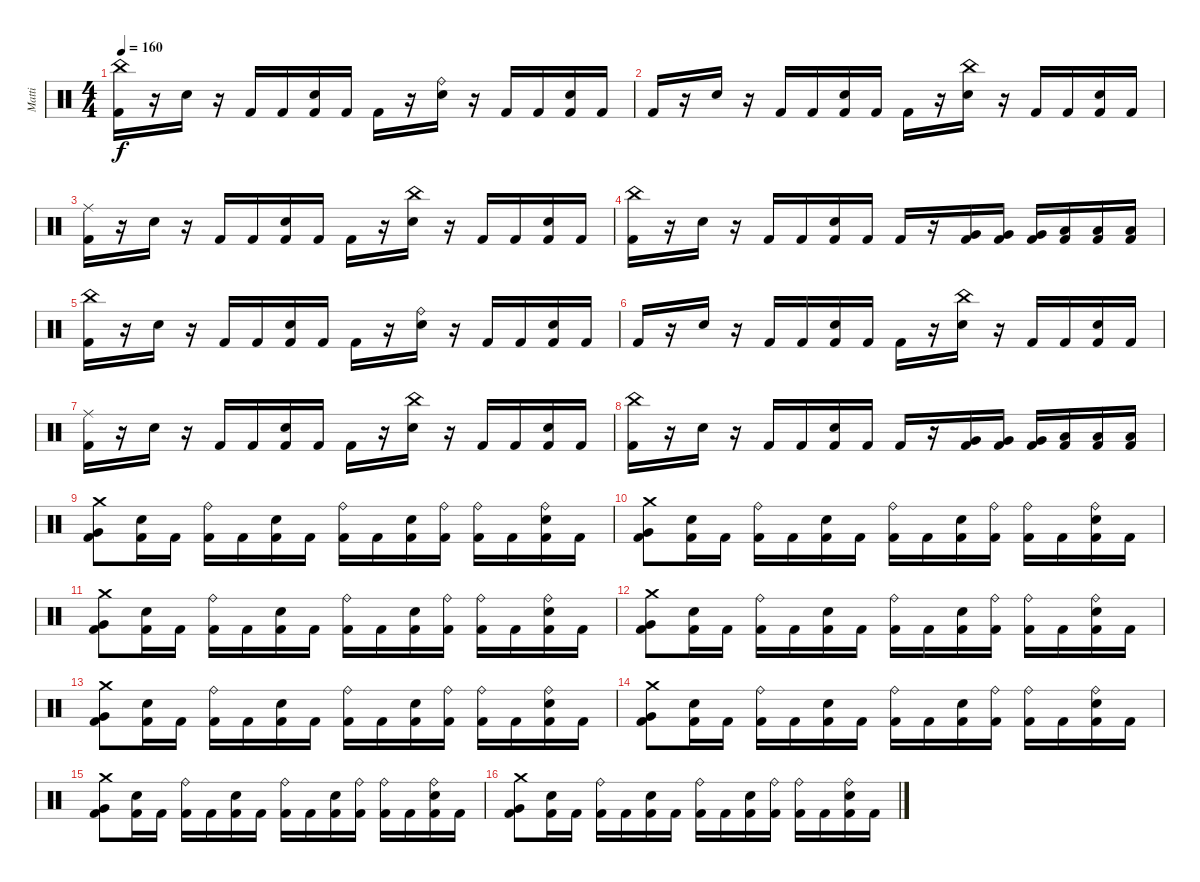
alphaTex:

\track ("Matti" "Matti") {instrument percussion}
\staff {score}
\articulation defaults
\ts (4 4)
\tempo 160
\clef neutral
\ks c
("China (hit)" "Kick (hit) 2").16{dy f} r.16 "Electric Snare (hit)".16 r.16 "Kick (hit) 2".16 "Kick (hit) 2".16 ("Electric Snare (hit)" "Kick (hit) 2").16 "Kick (hit) 2".16 "Kick (hit) 2".16 r.16 ("Ride (bell)" "Electric Snare (hit)").16 r.16 "Kick (hit) 2".16 "Kick (hit) 2".16 ("Electric Snare (hit)" "Kick (hit) 2").16 "Kick (hit) 2".16 |
"Kick (hit) 2".16 r.16 "Electric Snare (hit)".16 r.16 "Kick (hit) 2".16 "Kick (hit) 2".16 ("Electric Snare (hit)" "Kick (hit) 2").16 "Kick (hit) 2".16 "Kick (hit) 2".16 r.16 ("China (hit)" "Electric Snare (hit)").16 r.16 "Kick (hit) 2".16 "Kick (hit) 2".16 ("Electric Snare (hit)" "Kick (hit) 2").16 "Kick (hit) 2".16 |
("Ride (middle)" "Kick (hit) 2").16 r.16 "Electric Snare (hit)".16 r.16 "Kick (hit) 2".16 "Kick (hit) 2".16 ("Electric Snare (hit)" "Kick (hit) 2").16 "Kick (hit) 2".16 "Kick (hit) 2".16 r.16 ("China (hit)" "Electric Snare (hit)").16 r.16 "Kick (hit) 2".16 "Kick (hit) 2".16 ("Electric Snare (hit)" "Kick (hit) 2").16 "Kick (hit) 2".16 |
("China (hit)" "Kick (hit) 2").16 r.16 "Electric Snare (hit)".16 r.16 "Kick (hit) 2".16 "Kick (hit) 2".16 ("Electric Snare (hit)" "Kick (hit) 2").16 "Kick (hit) 2".16 "Kick (hit) 2".16 r.16 ("Very Low Tom (hit)" "Kick (hit) 2").16 ("Very Low Tom (hit)" "Kick (hit) 2").16 ("Very Low Tom (hit)" "Kick (hit) 2").16 ("Low Floor Tom (hit)" "Kick (hit) 2").16 ("Low Floor Tom (hit)" "Kick (hit) 2").16 ("Low Floor Tom (hit)" "Kick (hit) 2").16 |
("China (hit)" "Kick (hit) 2").16 r.16 "Electric Snare (hit)".16 r.16 "Kick (hit) 2".16 "Kick (hit) 2".16 ("Electric Snare (hit)" "Kick (hit) 2").16 "Kick (hit) 2".16 "Kick (hit) 2".16 r.16 ("Ride (bell)" "Electric Snare (hit)").16 r.16 "Kick (hit) 2".16 "Kick (hit) 2".16 ("Electric Snare (hit)" "Kick (hit) 2").16 "Kick (hit) 2".16 |
"Kick (hit) 2".16 r.16 "Electric Snare (hit)".16 r.16 "Kick (hit) 2".16 "Kick (hit) 2".16 ("Electric Snare (hit)" "Kick (hit) 2").16 "Kick (hit) 2".16 "Kick (hit) 2".16 r.16 ("China (hit)" "Electric Snare (hit)").16 r.16 "Kick (hit) 2".16 "Kick (hit) 2".16 ("Electric Snare (hit)" "Kick (hit) 2").16 "Kick (hit) 2".16 |
("Ride (middle)" "Kick (hit) 2").16 r.16 "Electric Snare (hit)".16 r.16 "Kick (hit) 2".16 "Kick (hit) 2".16 ("Electric Snare (hit)" "Kick (hit) 2").16 "Kick (hit) 2".16 "Kick (hit) 2".16 r.16 ("China (hit)" "Electric Snare (hit)").16 r.16 "Kick (hit) 2".16 "Kick (hit) 2".16 ("Electric Snare (hit)" "Kick (hit) 2").16 "Kick (hit) 2".16 |
("China (hit)" "Kick (hit) 2").16 r.16 "Electric Snare (hit)".16 r.16 "Kick (hit) 2".16 "Kick (hit) 2".16 ("Electric Snare (hit)" "Kick (hit) 2").16 "Kick (hit) 2".16 "Kick (hit) 2".16 r.16 ("Very Low Tom (hit)" "Kick (hit) 2").16 ("Very Low Tom (hit)" "Kick (hit) 2").16 ("Very Low Tom (hit)" "Kick (hit) 2").16 ("Low Floor Tom (hit)" "Kick (hit) 2").16 ("Low Floor Tom (hit)" "Kick (hit) 2").16 ("Low Floor Tom (hit)" "Kick (hit) 2").16 |
("Crash medium (hit)" "Very Low Tom (hit)" "Kick (hit) 2").8 ("Electric Snare (hit)" "Kick (hit) 2").16 "Kick (hit) 2".16 ("Ride (bell)" "Kick (hit) 2").16 "Kick (hit) 2".16 ("Electric Snare (hit)" "Kick (hit) 2").16 "Kick (hit) 2".16 ("Ride (bell)" "Kick (hit) 2").16 "Kick (hit) 2".16 ("Electric Snare (hit)" "Kick (hit) 2").16 ("Ride (bell)" "Kick (hit) 2").16 ("Ride (bell)" "Kick (hit) 2").16 "Kick (hit) 2".16 ("Ride (bell)" "Electric Snare (hit)" "Kick (hit) 2").16 "Kick (hit) 2".16 |
("Crash medium (hit)" "Very Low Tom (hit)" "Kick (hit) 2").8 ("Electric Snare (hit)" "Kick (hit) 2").16 "Kick (hit) 2".16 ("Ride (bell)" "Kick (hit) 2").16 "Kick (hit) 2".16 ("Electric Snare (hit)" "Kick (hit) 2").16 "Kick (hit) 2".16 ("Ride (bell)" "Kick (hit) 2").16 "Kick (hit) 2".16 ("Electric Snare (hit)" "Kick (hit) 2").16 ("Ride (bell)" "Kick (hit) 2").16 ("Ride (bell)" "Kick (hit) 2").16 "Kick (hit) 2".16 ("Ride (bell)" "Electric Snare (hit)" "Kick (hit) 2").16 "Kick (hit) 2".16 |
("Crash medium (hit)" "Very Low Tom (hit)" "Kick (hit) 2").8 ("Electric Snare (hit)" "Kick (hit) 2").16 "Kick (hit) 2".16 ("Ride (bell)" "Kick (hit) 2").16 "Kick (hit) 2".16 ("Electric Snare (hit)" "Kick (hit) 2").16 "Kick (hit) 2".16 ("Ride (bell)" "Kick (hit) 2").16 "Kick (hit) 2".16 ("Electric Snare (hit)" "Kick (hit) 2").16 ("Ride (bell)" "Kick (hit) 2").16 ("Ride (bell)" "Kick (hit) 2").16 "Kick (hit) 2".16 ("Ride (bell)" "Electric Snare (hit)" "Kick (hit) 2").16 "Kick (hit) 2".16 |
("Crash medium (hit)" "Very Low Tom (hit)" "Kick (hit) 2").8 ("Electric Snare (hit)" "Kick (hit) 2").16 "Kick (hit) 2".16 ("Ride (bell)" "Kick (hit) 2").16 "Kick (hit) 2".16 ("Electric Snare (hit)" "Kick (hit) 2").16 "Kick (hit) 2".16 ("Ride (bell)" "Kick (hit) 2").16 "Kick (hit) 2".16 ("Electric Snare (hit)" "Kick (hit) 2").16 ("Ride (bell)" "Kick (hit) 2").16 ("Ride (bell)" "Kick (hit) 2").16 "Kick (hit) 2".16 ("Ride (bell)" "Electric Snare (hit)" "Kick (hit) 2").16 "Kick (hit) 2".16 |
("Crash medium (hit)" "Very Low Tom (hit)" "Kick (hit) 2").8 ("Electric Snare (hit)" "Kick (hit) 2").16 "Kick (hit) 2".16 ("Ride (bell)" "Kick (hit) 2").16 "Kick (hit) 2".16 ("Electric Snare (hit)" "Kick (hit) 2").16 "Kick (hit) 2".16 ("Ride (bell)" "Kick (hit) 2").16 "Kick (hit) 2".16 ("Electric Snare (hit)" "Kick (hit) 2").16 ("Ride (bell)" "Kick (hit) 2").16 ("Ride (bell)" "Kick (hit) 2").16 "Kick (hit) 2".16 ("Ride (bell)" "Electric Snare (hit)" "Kick (hit) 2").16 "Kick (hit) 2".16 |
("Crash medium (hit)" "Very Low Tom (hit)" "Kick (hit) 2").8 ("Electric Snare (hit)" "Kick (hit) 2").16 "Kick (hit) 2".16 ("Ride (bell)" "Kick (hit) 2").16 "Kick (hit) 2".16 ("Electric Snare (hit)" "Kick (hit) 2").16 "Kick (hit) 2".16 ("Ride (bell)" "Kick (hit) 2").16 "Kick (hit) 2".16 ("Electric Snare (hit)" "Kick (hit) 2").16 ("Ride (bell)" "Kick (hit) 2").16 ("Ride (bell)" "Kick (hit) 2").16 "Kick (hit) 2".16 ("Ride (bell)" "Electric Snare (hit)" "Kick (hit) 2").16 "Kick (hit) 2".16 |
("Crash medium (hit)" "Very Low Tom (hit)" "Kick (hit) 2").8 ("Electric Snare (hit)" "Kick (hit) 2").16 "Kick (hit) 2".16 ("Ride (bell)" "Kick (hit) 2").16 "Kick (hit) 2".16 ("Electric Snare (hit)" "Kick (hit) 2").16 "Kick (hit) 2".16 ("Ride (bell)" "Kick (hit) 2").16 "Kick (hit) 2".16 ("Electric Snare (hit)" "Kick (hit) 2").16 ("Ride (bell)" "Kick (hit) 2").16 ("Ride (bell)" "Kick (hit) 2").16 "Kick (hit) 2".16 ("Ride (bell)" "Electric Snare (hit)" "Kick (hit) 2").16 "Kick (hit) 2".16 |
("Crash medium (hit)" "Very Low Tom (hit)" "Kick (hit) 2").8 ("Electric Snare (hit)" "Kick (hit) 2").16 "Kick (hit) 2".16 ("Ride (bell)" "Kick (hit) 2").16 "Kick (hit) 2".16 ("Electric Snare (hit)" "Kick (hit) 2").16 "Kick (hit) 2".16 ("Ride (bell)" "Kick (hit) 2").16 "Kick (hit) 2".16 ("Electric Snare (hit)" "Kick (hit) 2").16 ("Ride (bell)" "Kick (hit) 2").16 ("Ride (bell)" "Kick (hit) 2").16 "Kick (hit) 2".16 ("Ride (bell)" "Electric Snare (hit)" "Kick (hit) 2").16 "Kick (hit) 2".16
